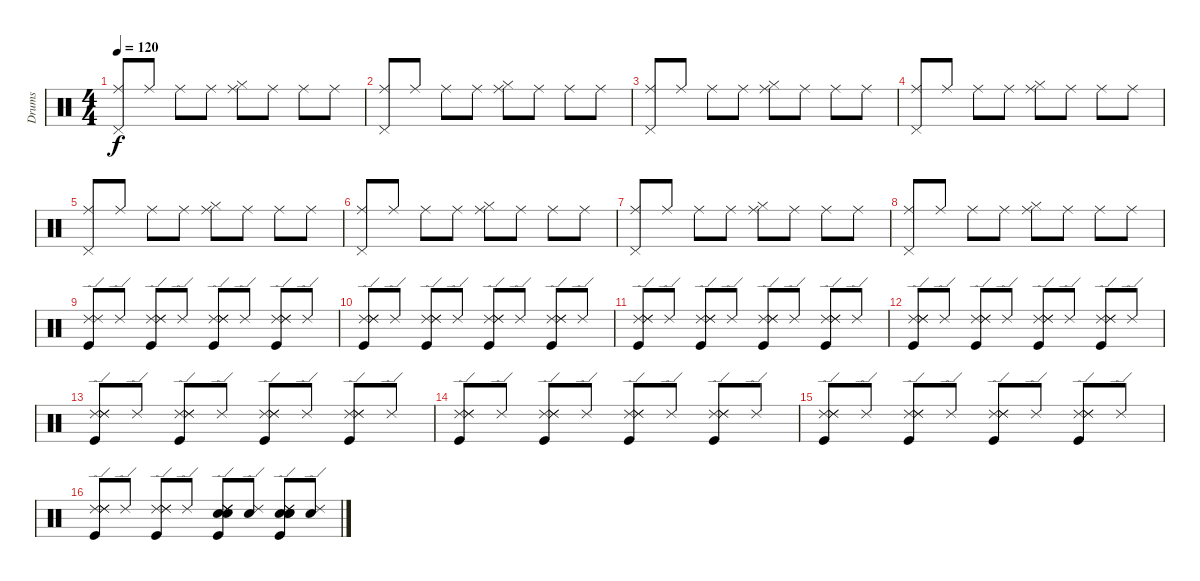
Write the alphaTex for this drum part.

\track ("Drums" "Drums") {instrument percussion}
\staff {score}
\articulation defaults
\ts (4 4)
\tempo 120
\clef neutral
\ks c
("Pedal Hi-Hat (hit)" "Ride (middle)").8{dy f} "Ride (middle)".8 "Ride (middle)".8 "Ride (middle)".8 ("Ride (middle)" "Hi-Hat (closed)").8 "Ride (middle)".8 "Ride (middle)".8 "Ride (middle)".8 |
("Pedal Hi-Hat (hit)" "Ride (middle)").8 "Ride (middle)".8 "Ride (middle)".8 "Ride (middle)".8 ("Ride (middle)" "Hi-Hat (closed)").8 "Ride (middle)".8 "Ride (middle)".8 "Ride (middle)".8 |
("Pedal Hi-Hat (hit)" "Ride (middle)").8 "Ride (middle)".8 "Ride (middle)".8 "Ride (middle)".8 ("Ride (middle)" "Hi-Hat (closed)").8 "Ride (middle)".8 "Ride (middle)".8 "Ride (middle)".8 |
("Pedal Hi-Hat (hit)" "Ride (middle)").8 "Ride (middle)".8 "Ride (middle)".8 "Ride (middle)".8 ("Ride (middle)" "Hi-Hat (closed)").8 "Ride (middle)".8 "Ride (middle)".8 "Ride (middle)".8 |
("Pedal Hi-Hat (hit)" "Ride (middle)").8 "Ride (middle)".8 "Ride (middle)".8 "Ride (middle)".8 ("Ride (middle)" "Hi-Hat (closed)").8 "Ride (middle)".8 "Ride (middle)".8 "Ride (middle)".8 |
("Pedal Hi-Hat (hit)" "Ride (middle)").8 "Ride (middle)".8 "Ride (middle)".8 "Ride (middle)".8 ("Ride (middle)" "Hi-Hat (closed)").8 "Ride (middle)".8 "Ride (middle)".8 "Ride (middle)".8 |
("Pedal Hi-Hat (hit)" "Ride (middle)").8 "Ride (middle)".8 "Ride (middle)".8 "Ride (middle)".8 ("Ride (middle)" "Hi-Hat (closed)").8 "Ride (middle)".8 "Ride (middle)".8 "Ride (middle)".8 |
("Pedal Hi-Hat (hit)" "Ride (middle)").8 "Ride (middle)".8 "Ride (middle)".8 "Ride (middle)".8 ("Ride (middle)" "Hi-Hat (closed)").8 "Ride (middle)".8 "Ride (middle)".8 "Ride (middle)".8 |
("Kick (hit)" "Ride (edge) 2" "Ride (edge) 2").8 "Ride (edge) 2".8 ("Ride (edge) 2" "Kick (hit)" "Ride (edge) 2" "Ride (edge) 2").8 "Ride (edge) 2".8 ("Ride (edge) 2" "Ride (edge) 2" "Kick (hit)" "Ride (edge) 2").8 "Ride (edge) 2".8 ("Ride (edge) 2" "Kick (hit)" "Ride (edge) 2" "Ride (edge) 2").8 "Ride (edge) 2".8 |
("Ride (edge) 2" "Kick (hit)" "Ride (edge) 2" "Ride (edge) 2").8 "Ride (edge) 2".8 ("Ride (edge) 2" "Ride (edge) 2" "Kick (hit)" "Ride (edge) 2").8 "Ride (edge) 2".8 ("Ride (edge) 2" "Ride (edge) 2" "Kick (hit)" "Ride (edge) 2").8 "Ride (edge) 2".8 ("Ride (edge) 2" "Ride (edge) 2" "Kick (hit)" "Ride (edge) 2").8 "Ride (edge) 2".8 |
("Ride (edge) 2" "Ride (edge) 2" "Kick (hit)" "Ride (edge) 2").8 "Ride (edge) 2".8 ("Ride (edge) 2" "Kick (hit)" "Ride (edge) 2" "Ride (edge) 2").8 "Ride (edge) 2".8 ("Ride (edge) 2" "Ride (edge) 2" "Kick (hit)" "Ride (edge) 2").8 "Ride (edge) 2".8 ("Ride (edge) 2" "Kick (hit)" "Ride (edge) 2" "Ride (edge) 2").8 "Ride (edge) 2".8 |
("Ride (edge) 2" "Kick (hit)" "Ride (edge) 2" "Ride (edge) 2").8 "Ride (edge) 2".8 ("Ride (edge) 2" "Ride (edge) 2" "Kick (hit)" "Ride (edge) 2").8 "Ride (edge) 2".8 ("Ride (edge) 2" "Ride (edge) 2" "Kick (hit)" "Ride (edge) 2").8 "Ride (edge) 2".8 ("Ride (edge) 2" "Ride (edge) 2" "Kick (hit)" "Ride (edge) 2").8 "Ride (edge) 2".8 |
("Ride (edge) 2" "Ride (edge) 2" "Kick (hit)" "Ride (edge) 2").8 "Ride (edge) 2".8 ("Ride (edge) 2" "Kick (hit)" "Ride (edge) 2" "Ride (edge) 2").8 "Ride (edge) 2".8 ("Ride (edge) 2" "Ride (edge) 2" "Kick (hit)" "Ride (edge) 2").8 "Ride (edge) 2".8 ("Ride (edge) 2" "Kick (hit)" "Ride (edge) 2" "Ride (edge) 2").8 "Ride (edge) 2".8 |
("Ride (edge) 2" "Kick (hit)" "Ride (edge) 2" "Ride (edge) 2").8 "Ride (edge) 2".8 ("Ride (edge) 2" "Ride (edge) 2" "Kick (hit)" "Ride (edge) 2").8 "Ride (edge) 2".8 ("Ride (edge) 2" "Ride (edge) 2" "Kick (hit)" "Ride (edge) 2").8 "Ride (edge) 2".8 ("Ride (edge) 2" "Ride (edge) 2" "Kick (hit)" "Ride (edge) 2").8 "Ride (edge) 2".8 |
("Ride (edge) 2" "Ride (edge) 2" "Kick (hit)" "Ride (edge) 2").8 "Ride (edge) 2".8 ("Ride (edge) 2" "Kick (hit)" "Ride (edge) 2" "Ride (edge) 2").8 "Ride (edge) 2".8 ("Ride (edge) 2" "Ride (edge) 2" "Kick (hit)" "Ride (edge) 2").8 "Ride (edge) 2".8 ("Ride (edge) 2" "Kick (hit)" "Ride (edge) 2" "Ride (edge) 2").8 "Ride (edge) 2".8 |
("Ride (edge) 2" "Kick (hit)" "Ride (edge) 2" "Ride (edge) 2").8 "Ride (edge) 2".8 ("Ride (edge) 2" "Ride (edge) 2" "Kick (hit)" "Ride (edge) 2").8 "Ride (edge) 2".8 ("Ride (edge) 2" "Electric Snare (hit)" "Ride (edge) 2" "Kick (hit)" "Electric Snare (hit)" "Ride (edge) 2").8 ("Electric Snare (hit)" "Ride (edge) 2").8 ("Electric Snare (hit)" "Ride (edge) 2" "Electric Snare (hit)" "Ride (edge) 2" "Kick (hit)" "Electric Snare (hit)").8 ("Electric Snare (hit)" "Ride (edge) 2").8
